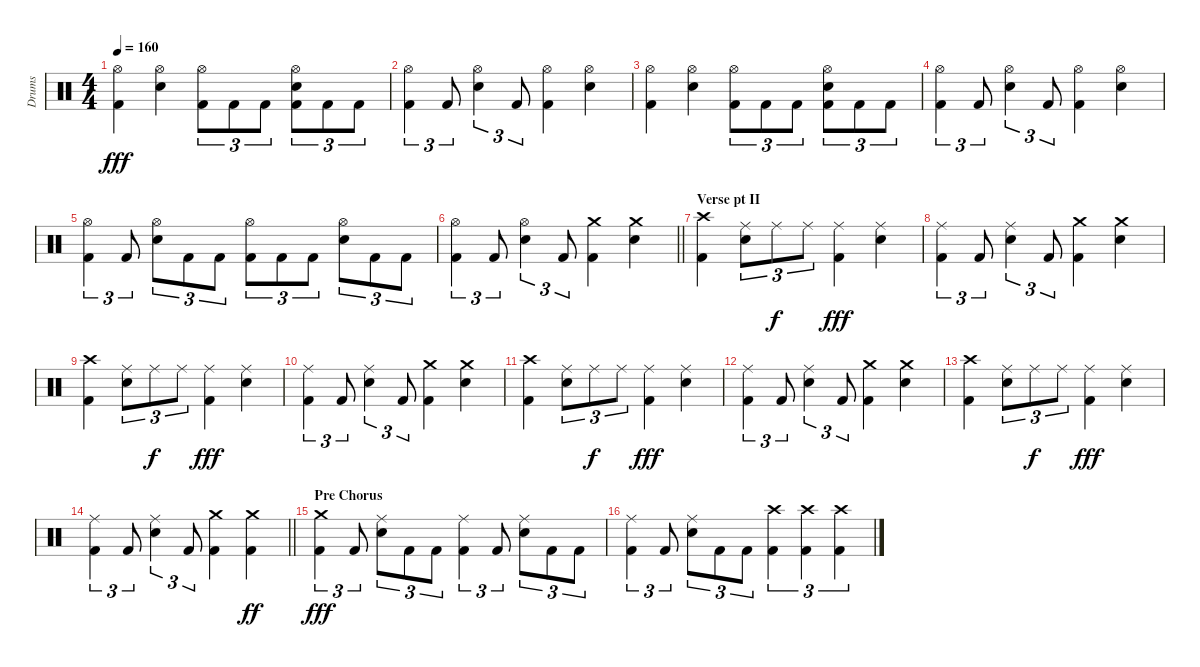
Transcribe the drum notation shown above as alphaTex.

\track ("Drums" "Drums") {instrument percussion}
\staff {score}
\articulation defaults
\ts (4 4)
\tempo 160
\clef neutral
\ks c
("Hi-Hat (open)" "Kick (hit) 2").4{dy fff} ("Hi-Hat (open)" "Snare (hit) 2").4 ("Hi-Hat (open)" "Kick (hit) 2").8{tu (3 2)} "Kick (hit) 2".8{tu (3 2)} "Kick (hit) 2".8{tu (3 2)} ("Hi-Hat (open)" "Snare (hit) 2" "Kick (hit) 2").8{tu (3 2)} "Kick (hit) 2".8{tu (3 2)} "Kick (hit) 2".8{tu (3 2)} |
("Hi-Hat (open)" "Kick (hit) 2").4{tu (3 2)} "Kick (hit) 2".8{tu (3 2)} ("Hi-Hat (open)" "Snare (hit) 2").4{tu (3 2)} "Kick (hit) 2".8{tu (3 2)} ("Hi-Hat (open)" "Kick (hit) 2").4 ("Hi-Hat (open)" "Snare (hit) 2").4 |
("Hi-Hat (open)" "Kick (hit) 2").4 ("Hi-Hat (open)" "Snare (hit) 2").4 ("Hi-Hat (open)" "Kick (hit) 2").8{tu (3 2)} "Kick (hit) 2".8{tu (3 2)} "Kick (hit) 2".8{tu (3 2)} ("Hi-Hat (open)" "Snare (hit) 2" "Kick (hit) 2").8{tu (3 2)} "Kick (hit) 2".8{tu (3 2)} "Kick (hit) 2".8{tu (3 2)} |
("Hi-Hat (open)" "Kick (hit) 2").4{tu (3 2)} "Kick (hit) 2".8{tu (3 2)} ("Hi-Hat (open)" "Snare (hit) 2").4{tu (3 2)} "Kick (hit) 2".8{tu (3 2)} ("Hi-Hat (open)" "Kick (hit) 2").4 ("Hi-Hat (open)" "Snare (hit) 2").4 |
("Hi-Hat (open)" "Kick (hit) 2").4{tu (3 2)} "Kick (hit) 2".8{tu (3 2)} ("Hi-Hat (open)" "Snare (hit) 2").8{tu (3 2)} "Kick (hit) 2".8{tu (3 2)} "Kick (hit) 2".8{tu (3 2)} ("Hi-Hat (open)" "Kick (hit) 2").8{tu (3 2)} "Kick (hit) 2".8{tu (3 2)} "Kick (hit) 2".8{tu (3 2)} ("Hi-Hat (open)" "Snare (hit) 2").8{tu (3 2)} "Kick (hit) 2".8{tu (3 2)} "Kick (hit) 2".8{tu (3 2)} |
\barLineRight lightlight
("Hi-Hat (open)" "Kick (hit) 2").4{tu (3 2)} "Kick (hit) 2".8{tu (3 2)} ("Hi-Hat (open)" "Snare (hit) 2").4{tu (3 2)} "Kick (hit) 2".8{tu (3 2)} ("Crash medium (hit)" "Kick (hit) 2").4 ("Crash medium (hit)" "Snare (hit) 2").4 |
\section ("" "Verse pt II")
("Crash high (hit)" "Kick (hit) 2").4 ("Ride (middle)" "Snare (hit) 2").8{tu (3 2)} "Ride (middle)".8{tu (3 2) dy f} "Ride (middle)".8{tu (3 2)} ("Ride (middle)" "Kick (hit) 2").4{dy fff} ("Ride (middle)" "Snare (hit) 2").4 |
("Ride (middle)" "Kick (hit) 2").4{tu (3 2)} "Kick (hit) 2".8{tu (3 2)} ("Ride (middle)" "Snare (hit) 2").4{tu (3 2)} "Kick (hit) 2".8{tu (3 2)} ("Crash medium (hit)" "Kick (hit) 2").4 ("Crash medium (hit)" "Snare (hit) 2").4 |
("Crash high (hit)" "Kick (hit) 2").4 ("Ride (middle)" "Snare (hit) 2").8{tu (3 2)} "Ride (middle)".8{tu (3 2) dy f} "Ride (middle)".8{tu (3 2)} ("Ride (middle)" "Kick (hit) 2").4{dy fff} ("Ride (middle)" "Snare (hit) 2").4 |
("Ride (middle)" "Kick (hit) 2").4{tu (3 2)} "Kick (hit) 2".8{tu (3 2)} ("Ride (middle)" "Snare (hit) 2").4{tu (3 2)} "Kick (hit) 2".8{tu (3 2)} ("Crash medium (hit)" "Kick (hit) 2").4 ("Crash medium (hit)" "Snare (hit) 2").4 |
("Crash high (hit)" "Kick (hit) 2").4 ("Ride (middle)" "Snare (hit) 2").8{tu (3 2)} "Ride (middle)".8{tu (3 2) dy f} "Ride (middle)".8{tu (3 2)} ("Ride (middle)" "Kick (hit) 2").4{dy fff} ("Ride (middle)" "Snare (hit) 2").4 |
("Ride (middle)" "Kick (hit) 2").4{tu (3 2)} "Kick (hit) 2".8{tu (3 2)} ("Ride (middle)" "Snare (hit) 2").4{tu (3 2)} "Kick (hit) 2".8{tu (3 2)} ("Crash medium (hit)" "Kick (hit) 2").4 ("Crash medium (hit)" "Snare (hit) 2").4 |
("Crash high (hit)" "Kick (hit) 2").4 ("Ride (middle)" "Snare (hit) 2").8{tu (3 2)} "Ride (middle)".8{tu (3 2) dy f} "Ride (middle)".8{tu (3 2)} ("Ride (middle)" "Kick (hit) 2").4{dy fff} ("Ride (middle)" "Snare (hit) 2").4 |
\barLineRight lightlight
("Ride (middle)" "Kick (hit) 2").4{tu (3 2)} "Kick (hit) 2".8{tu (3 2)} ("Ride (middle)" "Snare (hit) 2").4{tu (3 2)} "Kick (hit) 2".8{tu (3 2)} ("Crash medium (hit)" "Kick (hit) 2").4 ("Crash medium (hit)" "Kick (hit) 2").4{dy ff} |
\section ("" "Pre Chorus")
("Crash medium (hit)" "Kick (hit) 2").4{tu (3 2) dy fff} "Kick (hit) 2".8{tu (3 2)} ("Ride (middle)" "Snare (hit) 2").8{tu (3 2)} "Kick (hit) 2".8{tu (3 2)} "Kick (hit) 2".8{tu (3 2)} ("Ride (middle)" "Kick (hit) 2").4{tu (3 2)} "Kick (hit) 2".8{tu (3 2)} ("Ride (middle)" "Snare (hit) 2").8{tu (3 2)} "Kick (hit) 2".8{tu (3 2)} "Kick (hit) 2".8{tu (3 2)} |
("Ride (middle)" "Kick (hit) 2").4{tu (3 2)} "Kick (hit) 2".8{tu (3 2)} ("Ride (middle)" "Snare (hit) 2").8{tu (3 2)} "Kick (hit) 2".8{tu (3 2)} "Kick (hit) 2".8{tu (3 2)} ("Crash high (hit)" "Kick (hit) 2").4{tu (3 2)} ("Crash high (hit)" "Kick (hit) 2").4{tu (3 2)} ("Crash high (hit)" "Kick (hit) 2").4{tu (3 2)}
